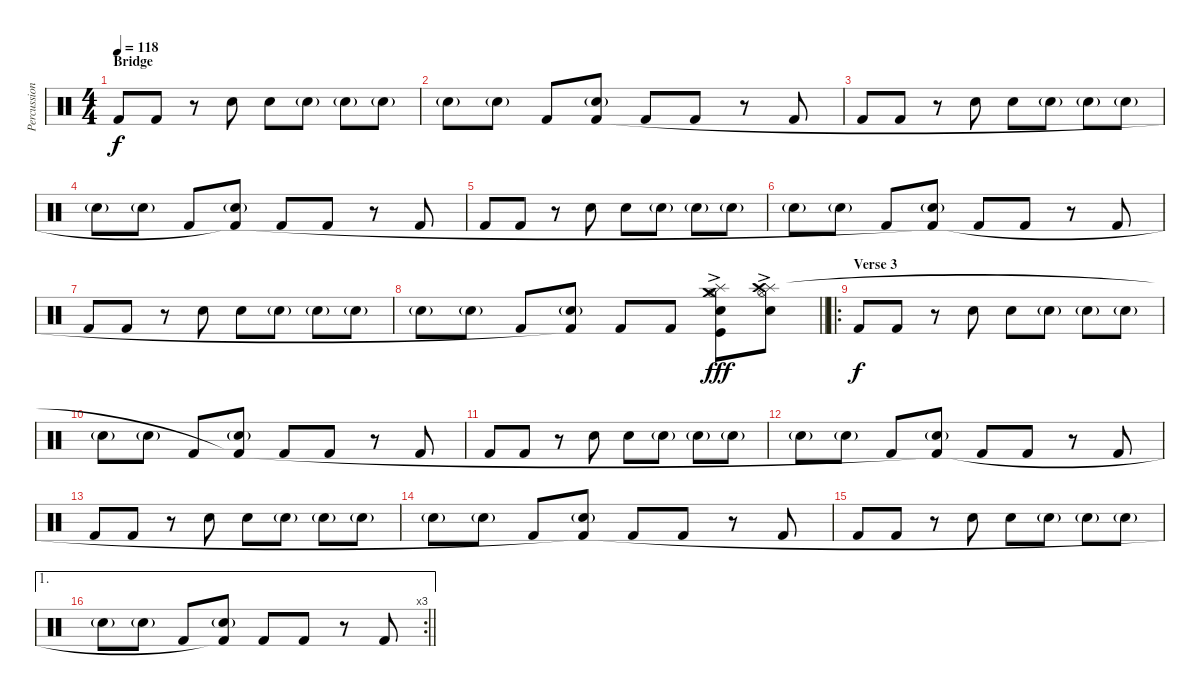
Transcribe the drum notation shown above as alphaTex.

\track ("Percussion" "Percussion") {instrument percussion}
\staff {score}
\articulation defaults
\ts (4 4)
\section ("" "Bridge")
\tempo 118
\clef neutral
\ks c "Kick (hit) 2".8{dy f volume 6} "Kick (hit) 2".8
r.8 "Snare (hit) 2".8 "Snare (hit) 2".8 "Snare (hit) 2"{g}.8 "Snare (hit) 2"{g}.8 "Snare (hit) 2"{g}.8 |
"Snare (hit) 2"{g}.8 "Snare (hit) 2"{g}.8 "Kick (hit) 2".8 ("Snare (hit) 2"{g} "Kick (hit) 2"{t}).8 "Kick (hit) 2".8 "Kick (hit) 2".8 r.8 "Kick (hit) 2".8 |
"Kick (hit) 2".8 "Kick (hit) 2".8 r.8 "Snare (hit) 2".8 "Snare (hit) 2".8 "Snare (hit) 2"{g}.8 "Snare (hit) 2"{g}.8 "Snare (hit) 2"{g}.8 |
"Snare (hit) 2"{g}.8 "Snare (hit) 2"{g}.8 "Kick (hit) 2".8 ("Snare (hit) 2"{g} "Kick (hit) 2"{t}).8 "Kick (hit) 2".8 "Kick (hit) 2".8 r.8 "Kick (hit) 2".8 |
"Kick (hit) 2".8 "Kick (hit) 2".8 r.8 "Snare (hit) 2".8 "Snare (hit) 2".8 "Snare (hit) 2"{g}.8 "Snare (hit) 2"{g}.8 "Snare (hit) 2"{g}.8 |
"Snare (hit) 2"{g}.8 "Snare (hit) 2"{g}.8 "Kick (hit) 2".8 ("Snare (hit) 2"{g} "Kick (hit) 2"{t}).8 "Kick (hit) 2".8 "Kick (hit) 2".8 r.8 "Kick (hit) 2".8 |
"Kick (hit) 2".8 "Kick (hit) 2".8 r.8 "Snare (hit) 2".8 "Snare (hit) 2".8 "Snare (hit) 2"{g}.8 "Snare (hit) 2"{g}.8 "Snare (hit) 2"{g}.8 |
\barLineRight lightlight "Snare (hit) 2"{g}.8 "Snare (hit) 2"{g}.8 "Kick (hit) 2".8
("Snare (hit) 2"{g} "Kick (hit) 2"{t}).8 "Kick (hit) 2".8 "Kick (hit) 2".8 ("Hi-Hat (open)"{ac} "Splash (hit)"{ac} "Crash medium (hit)"{ac} "Snare (hit) 2"{ac} "Kick (hit)"{ac}).8{dy fff volume 16} ("Hi-Hat (open)"{ac} "Splash (hit)"{ac} "Crash high (hit)"{ac} "Snare (hit) 2"{ac}).8 |
\ro
\section ("" "Verse 3")
"Kick (hit) 2".8{dy f volume 6} "Kick (hit) 2".8 r.8 "Snare (hit) 2".8 "Snare (hit) 2".8 "Snare (hit) 2"{g}.8 "Snare (hit) 2"{g}.8 "Snare (hit) 2"{g}.8 |
"Snare (hit) 2"{g}.8 "Snare (hit) 2"{g}.8 "Kick (hit) 2".8 ("Snare (hit) 2"{g} "Kick (hit) 2"{t}).8 "Kick (hit) 2".8 "Kick (hit) 2".8 r.8 "Kick (hit) 2".8 |
"Kick (hit) 2".8 "Kick (hit) 2".8 r.8 "Snare (hit) 2".8 "Snare (hit) 2".8 "Snare (hit) 2"{g}.8 "Snare (hit) 2"{g}.8 "Snare (hit) 2"{g}.8 |
"Snare (hit) 2"{g}.8 "Snare (hit) 2"{g}.8 "Kick (hit) 2".8 ("Snare (hit) 2"{g} "Kick (hit) 2"{t}).8 "Kick (hit) 2".8 "Kick (hit) 2".8 r.8 "Kick (hit) 2".8 |
"Kick (hit) 2".8 "Kick (hit) 2".8 r.8 "Snare (hit) 2".8 "Snare (hit) 2".8 "Snare (hit) 2"{g}.8 "Snare (hit) 2"{g}.8 "Snare (hit) 2"{g}.8 |
"Snare (hit) 2"{g}.8 "Snare (hit) 2"{g}.8 "Kick (hit) 2".8 ("Snare (hit) 2"{g} "Kick (hit) 2"{t}).8 "Kick (hit) 2".8 "Kick (hit) 2".8 r.8 "Kick (hit) 2".8 |
"Kick (hit) 2".8 "Kick (hit) 2".8 r.8 "Snare (hit) 2".8 "Snare (hit) 2".8 "Snare (hit) 2"{g}.8 "Snare (hit) 2"{g}.8 "Snare (hit) 2"{g}.8 |
\ae 1
\rc 3
\barLineRight lightlight "Snare (hit) 2"{g}.8 "Snare (hit) 2"{g}.8 "Kick (hit) 2".8
("Snare (hit) 2"{g} "Kick (hit) 2"{t}).8 "Kick (hit) 2".8 "Kick (hit) 2".8 r.8 "Kick (hit) 2".8
